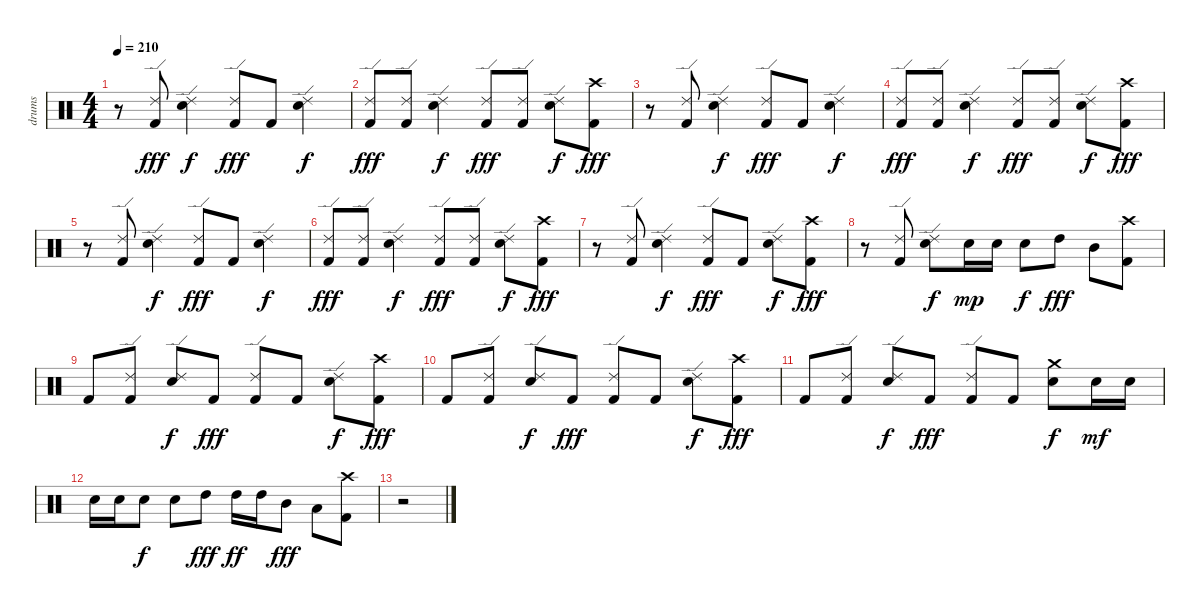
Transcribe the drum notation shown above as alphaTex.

\track ("drums" "drums") {instrument percussion}
\staff {score}
\articulation defaults
\ts (4 4)
\tempo 210
\clef neutral
\ks c
r.8{dy fff} ("Ride (edge) 2" "Kick (hit) 2").8 ("Ride (edge) 2" "Snare (hit) 2").4{dy f} ("Ride (edge) 2" "Kick (hit) 2").8{dy fff} "Kick (hit) 2".8 ("Ride (edge) 2" "Snare (hit) 2").4{dy f} |
("Ride (edge) 2" "Kick (hit) 2").8{dy fff} ("Ride (edge) 2" "Kick (hit) 2").8 ("Ride (edge) 2" "Snare (hit) 2").4{dy f} ("Ride (edge) 2" "Kick (hit) 2").8{dy fff} ("Ride (edge) 2" "Kick (hit) 2").8 ("Ride (edge) 2" "Snare (hit) 2").8{dy f} ("Crash high (hit)" "Kick (hit) 2").8{dy fff} |
r.8 ("Ride (edge) 2" "Kick (hit) 2").8 ("Ride (edge) 2" "Snare (hit) 2").4{dy f} ("Ride (edge) 2" "Kick (hit) 2").8{dy fff} "Kick (hit) 2".8 ("Ride (edge) 2" "Snare (hit) 2").4{dy f} |
("Ride (edge) 2" "Kick (hit) 2").8{dy fff} ("Ride (edge) 2" "Kick (hit) 2").8 ("Ride (edge) 2" "Snare (hit) 2").4{dy f} ("Ride (edge) 2" "Kick (hit) 2").8{dy fff} ("Ride (edge) 2" "Kick (hit) 2").8 ("Ride (edge) 2" "Snare (hit) 2").8{dy f} ("Crash high (hit)" "Kick (hit) 2").8{dy fff} |
r.8 ("Ride (edge) 2" "Kick (hit) 2").8 ("Ride (edge) 2" "Snare (hit) 2").4{dy f} ("Ride (edge) 2" "Kick (hit) 2").8{dy fff} "Kick (hit) 2".8 ("Ride (edge) 2" "Snare (hit) 2").4{dy f} |
("Ride (edge) 2" "Kick (hit) 2").8{dy fff} ("Ride (edge) 2" "Kick (hit) 2").8 ("Ride (edge) 2" "Snare (hit) 2").4{dy f} ("Ride (edge) 2" "Kick (hit) 2").8{dy fff} ("Ride (edge) 2" "Kick (hit) 2").8 ("Ride (edge) 2" "Snare (hit) 2").8{dy f} ("Crash high (hit)" "Kick (hit) 2").8{dy fff} |
r.8 ("Ride (edge) 2" "Kick (hit) 2").8 ("Ride (edge) 2" "Snare (hit) 2").4{dy f} ("Ride (edge) 2" "Kick (hit) 2").8{dy fff} "Kick (hit) 2".8 ("Ride (edge) 2" "Snare (hit) 2").8{dy f} ("Crash high (hit)" "Kick (hit) 2").8{dy fff} |
r.8 ("Ride (edge) 2" "Kick (hit) 2").8 ("Ride (edge) 2" "Snare (hit) 2").8{dy f} "Snare (hit) 2".16{dy mp} "Snare (hit) 2".16 "Snare (hit) 2".8{dy f} "High Tom (hit)".8{dy fff} "Mid Tom (hit)".8 ("Crash high (hit)" "Kick (hit) 2").8 |
"Kick (hit) 2".8 ("Ride (edge) 2" "Kick (hit) 2").8 ("Ride (edge) 2" "Snare (hit) 2").8{dy f} "Kick (hit) 2".8{dy fff} ("Ride (edge) 2" "Kick (hit) 2").8 "Kick (hit) 2".8 ("Ride (edge) 2" "Snare (hit) 2").8{dy f} ("Crash high (hit)" "Kick (hit) 2").8{dy fff} |
"Kick (hit) 2".8 ("Ride (edge) 2" "Kick (hit) 2").8 ("Ride (edge) 2" "Snare (hit) 2").8{dy f} "Kick (hit) 2".8{dy fff} ("Ride (edge) 2" "Kick (hit) 2").8 "Kick (hit) 2".8 ("Ride (edge) 2" "Snare (hit) 2").8{dy f} ("Crash high (hit)" "Kick (hit) 2").8{dy fff} |
"Kick (hit) 2".8 ("Ride (edge) 2" "Kick (hit) 2").8 ("Ride (edge) 2" "Snare (hit) 2").8{dy f} "Kick (hit) 2".8{dy fff} ("Ride (edge) 2" "Kick (hit) 2").8 "Kick (hit) 2".8 ("Crash medium (hit)" "Snare (hit) 2").8{dy f} "Snare (hit) 2".16{dy mf} "Snare (hit) 2".16 |
"Snare (hit) 2".16 "Snare (hit) 2".16 "Snare (hit) 2".8{dy f} "Snare (hit) 2".8 "High Tom (hit)".8{dy fff} "High Tom (hit)".16{dy ff} "High Tom (hit)".16 "Mid Tom (hit)".8{dy fff} "Low Tom (hit)".8 ("Crash high (hit)" "Kick (hit) 2").8 |
r.2
